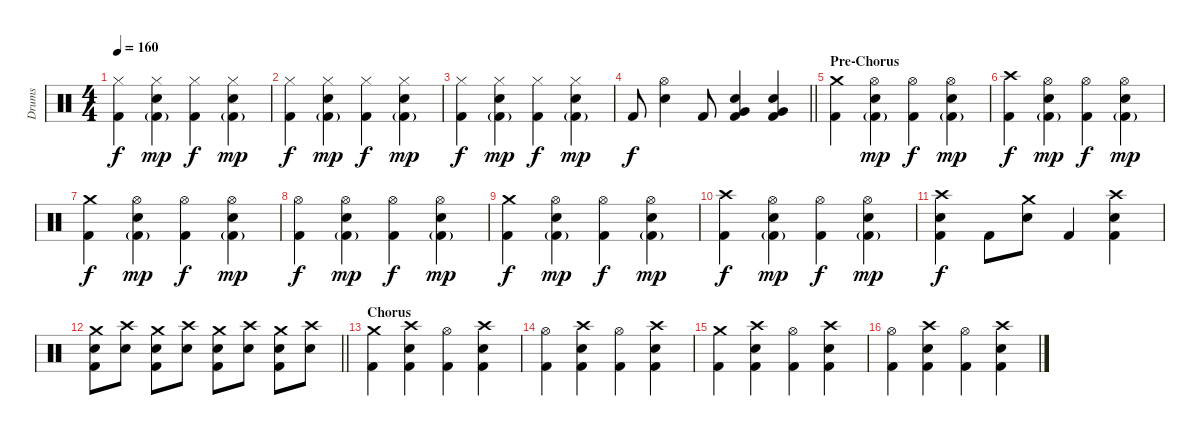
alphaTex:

\track ("Drums" "Drums") {instrument percussion}
\staff {score}
\articulation defaults
\ts (4 4)
\tempo 160
\clef neutral
\ks c
("Hi-Hat (closed)" "Kick (hit) 2").4{dy f} ("Hi-Hat (closed)" "Electric Snare (hit)" "Kick (hit) 2"{g}).4{dy mp} ("Hi-Hat (closed)" "Kick (hit) 2").4{dy f} ("Hi-Hat (closed)" "Electric Snare (hit)" "Kick (hit) 2"{g}).4{dy mp} |
("Hi-Hat (closed)" "Kick (hit) 2").4{dy f} ("Hi-Hat (closed)" "Electric Snare (hit)" "Kick (hit) 2"{g}).4{dy mp} ("Hi-Hat (closed)" "Kick (hit) 2").4{dy f} ("Hi-Hat (closed)" "Electric Snare (hit)" "Kick (hit) 2"{g}).4{dy mp} |
("Hi-Hat (closed)" "Kick (hit) 2").4{dy f} ("Hi-Hat (closed)" "Electric Snare (hit)" "Kick (hit) 2"{g}).4{dy mp} ("Hi-Hat (closed)" "Kick (hit) 2").4{dy f} ("Hi-Hat (closed)" "Electric Snare (hit)" "Kick (hit) 2"{g}).4{dy mp} |
\barLineRight lightlight "Kick (hit) 2".8{dy f}
("Hi-Hat (open)" "Electric Snare (hit)").4 "Kick (hit) 2".8 ("Electric Snare (hit)" "Very Low Tom (hit)" "Kick (hit) 2").4 ("Electric Snare (hit)" "Very Low Tom (hit)" "Kick (hit) 2").4 |
\section ("" "Pre-Chorus")
("Crash medium (hit)" "Kick (hit) 2").4 ("Hi-Hat (open)" "Electric Snare (hit)" "Kick (hit) 2"{g}).4{dy mp} ("Hi-Hat (open)" "Kick (hit) 2").4{dy f} ("Hi-Hat (open)" "Electric Snare (hit)" "Kick (hit) 2"{g}).4{dy mp} |
("Crash high (hit)" "Kick (hit) 2").4{dy f} ("Hi-Hat (open)" "Electric Snare (hit)" "Kick (hit) 2"{g}).4{dy mp} ("Hi-Hat (open)" "Kick (hit) 2").4{dy f} ("Hi-Hat (open)" "Electric Snare (hit)" "Kick (hit) 2"{g}).4{dy mp} |
("Crash medium (hit)" "Kick (hit) 2").4{dy f} ("Hi-Hat (open)" "Electric Snare (hit)" "Kick (hit) 2"{g}).4{dy mp} ("Hi-Hat (open)" "Kick (hit) 2").4{dy f} ("Hi-Hat (open)" "Electric Snare (hit)" "Kick (hit) 2"{g}).4{dy mp} |
("Hi-Hat (open)" "Kick (hit) 2").4{dy f} ("Hi-Hat (open)" "Electric Snare (hit)" "Kick (hit) 2"{g}).4{dy mp} ("Hi-Hat (open)" "Kick (hit) 2").4{dy f} ("Hi-Hat (open)" "Electric Snare (hit)" "Kick (hit) 2"{g}).4{dy mp} |
("Crash medium (hit)" "Kick (hit) 2").4{dy f} ("Hi-Hat (open)" "Electric Snare (hit)" "Kick (hit) 2"{g}).4{dy mp} ("Hi-Hat (open)" "Kick (hit) 2").4{dy f} ("Hi-Hat (open)" "Electric Snare (hit)" "Kick (hit) 2"{g}).4{dy mp} |
("Crash high (hit)" "Kick (hit) 2").4{dy f} ("Hi-Hat (open)" "Electric Snare (hit)" "Kick (hit) 2"{g}).4{dy mp} ("Hi-Hat (open)" "Kick (hit) 2").4{dy f} ("Hi-Hat (open)" "Electric Snare (hit)" "Kick (hit) 2"{g}).4{dy mp} |
("Crash high (hit)" "Electric Snare (hit)" "Kick (hit) 2").4{dy f} "Kick (hit) 2".8 ("Crash medium (hit)" "Electric Snare (hit)").8 "Kick (hit) 2".4 ("Crash high (hit)" "Electric Snare (hit)" "Kick (hit) 2").4 |
\barLineRight lightlight
("Crash medium (hit)" "Electric Snare (hit)" "Kick (hit) 2").8 ("Crash high (hit)" "Electric Snare (hit)").8 ("Crash medium (hit)" "Electric Snare (hit)" "Kick (hit) 2").8 ("Crash high (hit)" "Electric Snare (hit)").8 ("Crash medium (hit)" "Electric Snare (hit)" "Kick (hit) 2").8 ("Crash high (hit)" "Electric Snare (hit)").8 ("Crash medium (hit)" "Electric Snare (hit)" "Kick (hit) 2").8 ("Crash high (hit)" "Electric Snare (hit)").8 |
\section ("" "Chorus")
("Crash medium (hit)" "Kick (hit) 2").4 ("Crash high (hit)" "Electric Snare (hit)" "Kick (hit) 2").4 ("Hi-Hat (open)" "Kick (hit) 2").4 ("Crash high (hit)" "Electric Snare (hit)" "Kick (hit) 2").4 |
("Hi-Hat (open)" "Kick (hit) 2").4 ("Crash high (hit)" "Electric Snare (hit)" "Kick (hit) 2").4 ("Hi-Hat (open)" "Kick (hit) 2").4 ("Crash high (hit)" "Electric Snare (hit)" "Kick (hit) 2").4 |
("Crash medium (hit)" "Kick (hit) 2").4 ("Crash high (hit)" "Electric Snare (hit)" "Kick (hit) 2").4 ("Hi-Hat (open)" "Kick (hit) 2").4 ("Crash high (hit)" "Electric Snare (hit)" "Kick (hit) 2").4 |
("Hi-Hat (open)" "Kick (hit) 2").4 ("Crash high (hit)" "Electric Snare (hit)" "Kick (hit) 2").4 ("Hi-Hat (open)" "Kick (hit) 2").4 ("Crash high (hit)" "Electric Snare (hit)" "Kick (hit) 2").4
